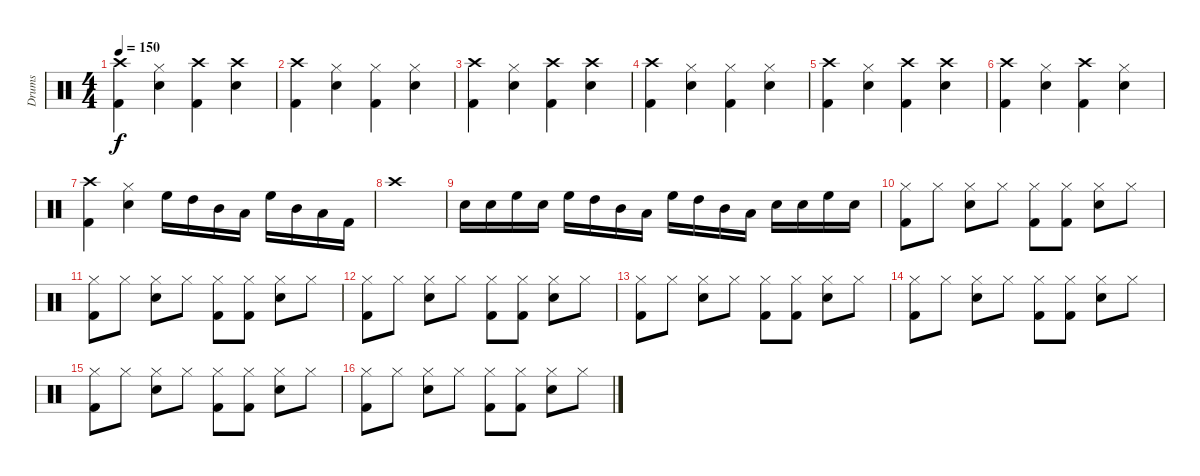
\track ("Drums" "Drums") {instrument percussion}
\staff {score}
\articulation defaults
\ts (4 4)
\tempo 150
\clef neutral
\ks c
("Kick (hit) 2" "Crash high (hit)").4{dy f} ("Hi-Hat (closed)" "Electric Snare (hit)").4 ("Kick (hit) 2" "Crash high (hit)").4 ("Crash high (hit)" "Electric Snare (hit)").4 |
("Kick (hit) 2" "Crash high (hit)").4 ("Hi-Hat (closed)" "Electric Snare (hit)").4 ("Kick (hit) 2" "Hi-Hat (closed)").4 ("Hi-Hat (closed)" "Electric Snare (hit)").4 |
("Kick (hit) 2" "Crash high (hit)").4 ("Hi-Hat (closed)" "Electric Snare (hit)").4 ("Kick (hit) 2" "Crash high (hit)").4 ("Crash high (hit)" "Electric Snare (hit)").4 |
("Kick (hit) 2" "Crash high (hit)").4 ("Hi-Hat (closed)" "Electric Snare (hit)").4 ("Kick (hit) 2" "Hi-Hat (closed)").4 ("Hi-Hat (closed)" "Electric Snare (hit)").4 |
("Kick (hit) 2" "Crash high (hit)").4 ("Hi-Hat (closed)" "Electric Snare (hit)").4 ("Kick (hit) 2" "Crash high (hit)").4 ("Crash high (hit)" "Electric Snare (hit)").4 |
("Kick (hit) 2" "Crash high (hit)").4 ("Hi-Hat (closed)" "Electric Snare (hit)").4 ("Kick (hit) 2" "Crash high (hit)").4 ("Hi-Hat (closed)" "Electric Snare (hit)").4 |
("Kick (hit) 2" "Crash high (hit)").4 ("Hi-Hat (closed)" "Electric Snare (hit)").4 "High Floor Tom (hit)".16 "High Tom (hit)".16 "Mid Tom (hit)".16 "Low Tom (hit)".16 "High Floor Tom (hit)".16 "Mid Tom (hit)".16 "Low Tom (hit)".16 "Kick (hit) 2".16 |
"Crash high (hit)".1 |
"Electric Snare (hit)".16 "Electric Snare (hit)".16 "High Floor Tom (hit)".16 "Electric Snare (hit)".16 "High Floor Tom (hit)".16 "High Tom (hit)".16 "Mid Tom (hit)".16 "Low Tom (hit)".16 "High Floor Tom (hit)".16 "High Tom (hit)".16 "Mid Tom (hit)".16 "Low Tom (hit)".16 "Electric Snare (hit)".16 "Electric Snare (hit)".16 "High Floor Tom (hit)".16 "Electric Snare (hit)".16 |
("Hi-Hat (closed)" "Kick (hit) 2").8 "Hi-Hat (closed)".8 ("Electric Snare (hit)" "Hi-Hat (closed)").8 "Hi-Hat (closed)".8 ("Hi-Hat (closed)" "Kick (hit) 2").8 ("Hi-Hat (closed)" "Kick (hit) 2").8 ("Electric Snare (hit)" "Hi-Hat (closed)").8 "Hi-Hat (closed)".8 |
("Hi-Hat (closed)" "Kick (hit) 2").8 "Hi-Hat (closed)".8 ("Electric Snare (hit)" "Hi-Hat (closed)").8 "Hi-Hat (closed)".8 ("Hi-Hat (closed)" "Kick (hit) 2").8 ("Hi-Hat (closed)" "Kick (hit) 2").8 ("Electric Snare (hit)" "Hi-Hat (closed)").8 "Hi-Hat (closed)".8 |
("Hi-Hat (closed)" "Kick (hit) 2").8 "Hi-Hat (closed)".8 ("Electric Snare (hit)" "Hi-Hat (closed)").8 "Hi-Hat (closed)".8 ("Hi-Hat (closed)" "Kick (hit) 2").8 ("Hi-Hat (closed)" "Kick (hit) 2").8 ("Electric Snare (hit)" "Hi-Hat (closed)").8 "Hi-Hat (closed)".8 |
("Hi-Hat (closed)" "Kick (hit) 2").8 "Hi-Hat (closed)".8 ("Electric Snare (hit)" "Hi-Hat (closed)").8 "Hi-Hat (closed)".8 ("Hi-Hat (closed)" "Kick (hit) 2").8 ("Hi-Hat (closed)" "Kick (hit) 2").8 ("Electric Snare (hit)" "Hi-Hat (closed)").8 "Hi-Hat (closed)".8 |
("Hi-Hat (closed)" "Kick (hit) 2").8 "Hi-Hat (closed)".8 ("Electric Snare (hit)" "Hi-Hat (closed)").8 "Hi-Hat (closed)".8 ("Hi-Hat (closed)" "Kick (hit) 2").8 ("Hi-Hat (closed)" "Kick (hit) 2").8 ("Electric Snare (hit)" "Hi-Hat (closed)").8 "Hi-Hat (closed)".8 |
("Hi-Hat (closed)" "Kick (hit) 2").8 "Hi-Hat (closed)".8 ("Electric Snare (hit)" "Hi-Hat (closed)").8 "Hi-Hat (closed)".8 ("Hi-Hat (closed)" "Kick (hit) 2").8 ("Hi-Hat (closed)" "Kick (hit) 2").8 ("Electric Snare (hit)" "Hi-Hat (closed)").8 "Hi-Hat (closed)".8 |
("Hi-Hat (closed)" "Kick (hit) 2").8 "Hi-Hat (closed)".8 ("Electric Snare (hit)" "Hi-Hat (closed)").8 "Hi-Hat (closed)".8 ("Hi-Hat (closed)" "Kick (hit) 2").8 ("Hi-Hat (closed)" "Kick (hit) 2").8 ("Electric Snare (hit)" "Hi-Hat (closed)").8 "Hi-Hat (closed)".8
